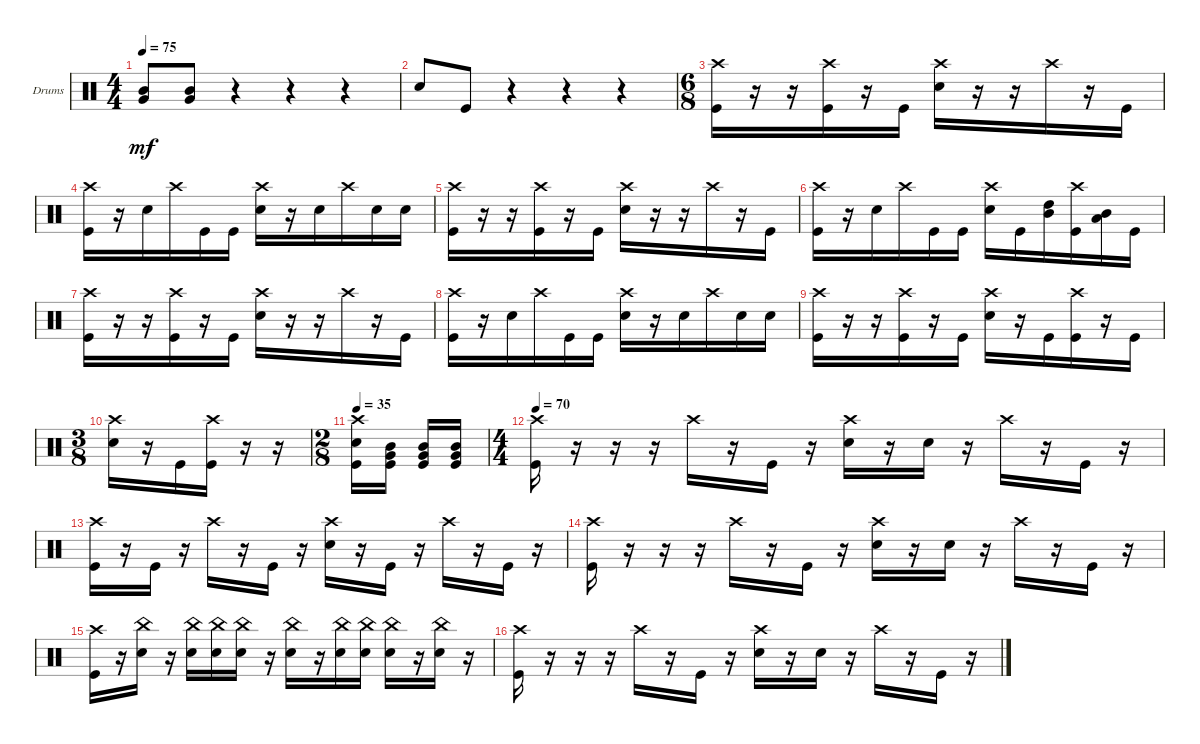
\defaultSystemsLayout 4
\bracketExtendMode groupsimilarinstruments
\firstSystemTrackNameOrientation horizontal
\otherSystemsTrackNameOrientation horizontal
\track ("Drumkit" "Drums") {instrument percussion}
\staff {score}
\articulation defaults
\ts (4 4)
\tempo 75
\clef neutral
\ks c
("Very Low Tom (hit)" "Mid Tom (hit)").8{dy mf} ("Very Low Tom (hit)" "Mid Tom (hit)").8 r.4 r.4 r.4 |
"Snare (hit) 2".8 "Kick (hit)".8 r.4 r.4 r.4 |
\ts (6 8)
("Crash high (hit)" "Kick (hit)").16 r.16 r.16 ("Crash high (hit)" "Kick (hit)").16 r.16 "Kick (hit)".16 ("Crash high (hit)" "Snare (hit) 2").16 r.16 r.16 "Crash high (hit)".16 r.16 "Kick (hit)".16 |
("Crash high (hit)" "Kick (hit)").16 r.16 "Snare (hit) 2".16 "Crash high (hit)".16 "Kick (hit)".16 "Kick (hit)".16 ("Crash high (hit)" "Snare (hit) 2").16 r.16 "Snare (hit) 2".16 "Crash high (hit)".16 "Snare (hit) 2".16 "Snare (hit) 2".16 |
("Crash high (hit)" "Kick (hit)").16 r.16 r.16 ("Crash high (hit)" "Kick (hit)").16 r.16 "Kick (hit)".16 ("Crash high (hit)" "Snare (hit) 2").16 r.16 r.16 "Crash high (hit)".16 r.16 "Kick (hit)".16 |
("Crash high (hit)" "Kick (hit)").16 r.16 "Snare (hit) 2".16 "Crash high (hit)".16 "Kick (hit)".16 "Kick (hit)".16 ("Crash high (hit)" "Snare (hit) 2").16 "Kick (hit)".16 ("High Tom (hit)" "Mid Tom (hit)").16 ("Crash high (hit)" "Kick (hit)").16 ("Mid Tom (hit)" "Low Tom (hit)").16 "Kick (hit)".16 |
("Crash high (hit)" "Kick (hit)").16 r.16 r.16 ("Crash high (hit)" "Kick (hit)").16 r.16 "Kick (hit)".16 ("Crash high (hit)" "Snare (hit) 2").16 r.16 r.16 "Crash high (hit)".16 r.16 "Kick (hit)".16 |
("Crash high (hit)" "Kick (hit)").16 r.16 "Snare (hit) 2".16 "Crash high (hit)".16 "Kick (hit)".16 "Kick (hit)".16 ("Crash high (hit)" "Snare (hit) 2").16 r.16 "Snare (hit) 2".16 "Crash high (hit)".16 "Snare (hit) 2".16 "Snare (hit) 2".16 |
("Crash high (hit)" "Kick (hit)").16 r.16 r.16 ("Crash high (hit)" "Kick (hit)").16 r.16 "Kick (hit)".16 ("Crash high (hit)" "Snare (hit) 2").16 r.16 "Kick (hit)".16 ("Crash high (hit)" "Kick (hit)").16 r.16 "Kick (hit)".16 |
\ts (3 8)
("Crash high (hit)" "Snare (hit) 2").16 r.16 "Kick (hit)".16 ("Kick (hit)" "Crash high (hit)").16 r.16 r.16 |
\ts (2 8)
\tempo 35
("Snare (hit) 2" "Crash high (hit)" "Kick (hit)").16 ("Kick (hit)" "Very Low Tom (hit)" "Mid Tom (hit)").16 ("Very Low Tom (hit)" "Mid Tom (hit)" "Kick (hit)").16 ("Kick (hit)" "Mid Tom (hit)" "Very Low Tom (hit)").16 |
\ts (4 4)
\tempo 70
("Crash high (hit)" "Kick (hit)").16 r.16 r.16 r.16 "Crash high (hit)".16 r.16 "Kick (hit)".16 r.16 ("Crash high (hit)" "Snare (hit) 2").16 r.16 "Snare (hit) 2".16 r.16 "Crash high (hit)".16 r.16 "Kick (hit)".16 r.16 |
("Kick (hit)" "Crash high (hit)").16 r.16 "Kick (hit)".16 r.16 "Crash high (hit)".16 r.16 "Kick (hit)".16 r.16 ("Crash high (hit)" "Snare (hit) 2").16 r.16 "Kick (hit)".16 r.16 "Crash high (hit)".16 r.16 "Kick (hit)".16 r.16 |
("Kick (hit)" "Crash high (hit)").16 r.16 r.16 r.16 "Crash high (hit)".16 r.16 "Kick (hit)".16 r.16 ("Crash high (hit)" "Snare (hit) 2").16 r.16 "Snare (hit) 2".16 r.16 "Crash high (hit)".16 r.16 "Kick (hit)".16 r.16 |
("Kick (hit)" "Crash high (hit)").16 r.16 ("Snare (hit) 2" "China (hit)").16 r.16 ("Snare (hit) 2" "China (hit)").16 ("Snare (hit) 2" "China (hit)").16 ("Snare (hit) 2" "China (hit)").16 r.16 ("Snare (hit) 2" "China (hit)").16 r.16 ("Snare (hit) 2" "China (hit)").16 ("Snare (hit) 2" "China (hit)").16 ("Snare (hit) 2" "China (hit)").16 r.16 ("Snare (hit) 2" "China (hit)").16 r.16 |
("Crash high (hit)" "Kick (hit)").16 r.16 r.16 r.16 "Crash high (hit)".16 r.16 "Kick (hit)".16 r.16 ("Crash high (hit)" "Snare (hit) 2").16 r.16 "Snare (hit) 2".16 r.16 "Crash high (hit)".16 r.16 "Kick (hit)".16 r.16
